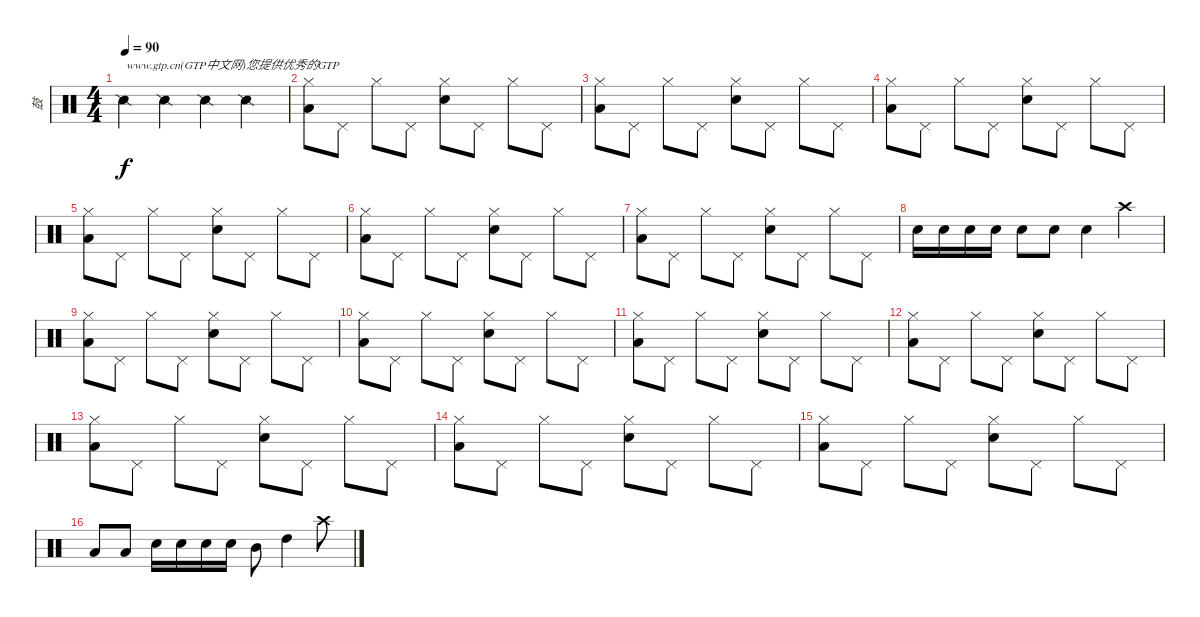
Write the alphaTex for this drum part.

\track ("鼓" "鼓") {instrument percussion}
\staff {score}
\articulation defaults
\ts (4 4)
\tempo 90
\clef neutral
\ks c "Snare (side stick) 2".4{txt "www.gtp.cn(GTP中文网)您提供优秀的GTP" dy f} "Snare (side stick) 2".4 "Snare (side stick) 2".4 "Snare (side stick) 2".4
|
("Hi-Hat (closed)" "Low Floor Tom (hit)").8 "Pedal Hi-Hat (hit)".8 "Hi-Hat (closed)".8 "Pedal Hi-Hat (hit)".8 ("Hi-Hat (closed)" "Electric Snare (hit)").8 "Pedal Hi-Hat (hit)".8 "Hi-Hat (closed)".8 "Pedal Hi-Hat (hit)".8 |
("Hi-Hat (closed)" "Low Floor Tom (hit)").8 "Pedal Hi-Hat (hit)".8 "Hi-Hat (closed)".8 "Pedal Hi-Hat (hit)".8 ("Hi-Hat (closed)" "Electric Snare (hit)").8 "Pedal Hi-Hat (hit)".8 "Hi-Hat (closed)".8 "Pedal Hi-Hat (hit)".8 |
("Hi-Hat (closed)" "Low Floor Tom (hit)").8 "Pedal Hi-Hat (hit)".8 "Hi-Hat (closed)".8 "Pedal Hi-Hat (hit)".8 ("Hi-Hat (closed)" "Electric Snare (hit)").8 "Pedal Hi-Hat (hit)".8 "Hi-Hat (closed)".8 "Pedal Hi-Hat (hit)".8 |
("Hi-Hat (closed)" "Low Floor Tom (hit)").8 "Pedal Hi-Hat (hit)".8 "Hi-Hat (closed)".8 "Pedal Hi-Hat (hit)".8 ("Hi-Hat (closed)" "Electric Snare (hit)").8 "Pedal Hi-Hat (hit)".8 "Hi-Hat (closed)".8 "Pedal Hi-Hat (hit)".8 |
("Hi-Hat (closed)" "Low Floor Tom (hit)").8 "Pedal Hi-Hat (hit)".8 "Hi-Hat (closed)".8 "Pedal Hi-Hat (hit)".8 ("Hi-Hat (closed)" "Electric Snare (hit)").8 "Pedal Hi-Hat (hit)".8 "Hi-Hat (closed)".8 "Pedal Hi-Hat (hit)".8 |
("Hi-Hat (closed)" "Low Floor Tom (hit)").8 "Pedal Hi-Hat (hit)".8 "Hi-Hat (closed)".8 "Pedal Hi-Hat (hit)".8 ("Hi-Hat (closed)" "Electric Snare (hit)").8 "Pedal Hi-Hat (hit)".8 "Hi-Hat (closed)".8 "Pedal Hi-Hat (hit)".8 |
"Electric Snare (hit)".16 "Electric Snare (hit)".16 "Electric Snare (hit)".16 "Electric Snare (hit)".16 "Electric Snare (hit)".8 "Electric Snare (hit)".8 "Electric Snare (hit)".4 "Crash high (hit)".4 |
("Hi-Hat (closed)" "Low Floor Tom (hit)").8 "Pedal Hi-Hat (hit)".8 "Hi-Hat (closed)".8 "Pedal Hi-Hat (hit)".8 ("Hi-Hat (closed)" "Electric Snare (hit)").8 "Pedal Hi-Hat (hit)".8 "Hi-Hat (closed)".8 "Pedal Hi-Hat (hit)".8 |
("Hi-Hat (closed)" "Low Floor Tom (hit)").8 "Pedal Hi-Hat (hit)".8 "Hi-Hat (closed)".8 "Pedal Hi-Hat (hit)".8 ("Hi-Hat (closed)" "Electric Snare (hit)").8 "Pedal Hi-Hat (hit)".8 "Hi-Hat (closed)".8 "Pedal Hi-Hat (hit)".8 |
("Hi-Hat (closed)" "Low Floor Tom (hit)").8 "Pedal Hi-Hat (hit)".8 "Hi-Hat (closed)".8 "Pedal Hi-Hat (hit)".8 ("Hi-Hat (closed)" "Electric Snare (hit)").8 "Pedal Hi-Hat (hit)".8 "Hi-Hat (closed)".8 "Pedal Hi-Hat (hit)".8 |
("Hi-Hat (closed)" "Low Floor Tom (hit)").8 "Pedal Hi-Hat (hit)".8 "Hi-Hat (closed)".8 "Pedal Hi-Hat (hit)".8 ("Hi-Hat (closed)" "Electric Snare (hit)").8 "Pedal Hi-Hat (hit)".8 "Hi-Hat (closed)".8 "Pedal Hi-Hat (hit)".8 |
("Hi-Hat (closed)" "Low Floor Tom (hit)").8 "Pedal Hi-Hat (hit)".8 "Hi-Hat (closed)".8 "Pedal Hi-Hat (hit)".8 ("Hi-Hat (closed)" "Electric Snare (hit)").8 "Pedal Hi-Hat (hit)".8 "Hi-Hat (closed)".8 "Pedal Hi-Hat (hit)".8 |
("Hi-Hat (closed)" "Low Floor Tom (hit)").8 "Pedal Hi-Hat (hit)".8 "Hi-Hat (closed)".8 "Pedal Hi-Hat (hit)".8 ("Hi-Hat (closed)" "Electric Snare (hit)").8 "Pedal Hi-Hat (hit)".8 "Hi-Hat (closed)".8 "Pedal Hi-Hat (hit)".8 |
("Hi-Hat (closed)" "Low Floor Tom (hit)").8 "Pedal Hi-Hat (hit)".8 "Hi-Hat (closed)".8 "Pedal Hi-Hat (hit)".8 ("Hi-Hat (closed)" "Electric Snare (hit)").8 "Pedal Hi-Hat (hit)".8 "Hi-Hat (closed)".8 "Pedal Hi-Hat (hit)".8 |
"Low Floor Tom (hit)".8 "Low Floor Tom (hit)".8 "Electric Snare (hit)".16 "Electric Snare (hit)".16 "Electric Snare (hit)".16 "Electric Snare (hit)".16 "Mid Tom (hit)".8 "High Tom (hit)".4 "Crash high (hit)".8
